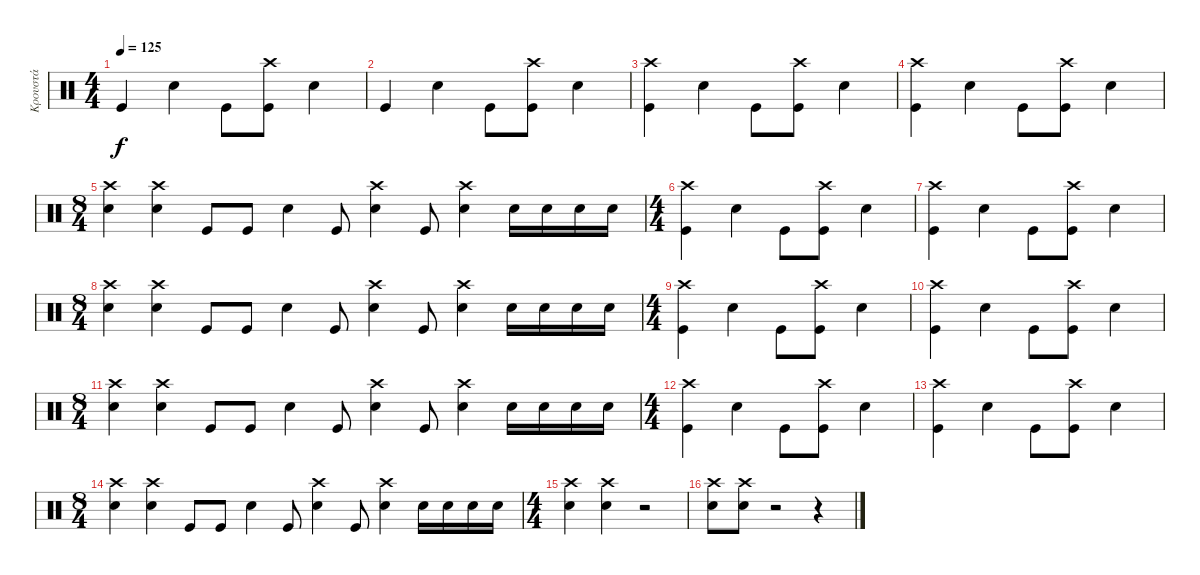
\track ("Κρουστά" "Κρουστά") {instrument percussion}
\staff {score}
\articulation defaults
\ts (4 4)
\tempo 125
\clef neutral
\ks c "Kick (hit)".4{dy f} "Electric Snare (hit)".4 "Kick (hit)".8
("Crash high (hit)" "Kick (hit)").8 "Electric Snare (hit)".4 |
"Kick (hit)".4 "Electric Snare (hit)".4 "Kick (hit)".8 ("Crash high (hit)" "Kick (hit)").8 "Electric Snare (hit)".4 |
("Crash high (hit)" "Kick (hit)").4 "Electric Snare (hit)".4 "Kick (hit)".8 ("Crash high (hit)" "Kick (hit)").8 "Electric Snare (hit)".4 |
("Crash high (hit)" "Kick (hit)").4 "Electric Snare (hit)".4 "Kick (hit)".8 ("Crash high (hit)" "Kick (hit)").8 "Electric Snare (hit)".4 |
\ts (8 4)
("Electric Snare (hit)" "Crash high (hit)").4 ("Crash high (hit)" "Electric Snare (hit)").4 "Kick (hit)".8 "Kick (hit)".8 "Electric Snare (hit)".4 "Kick (hit)".8 ("Crash high (hit)" "Electric Snare (hit)").4 "Kick (hit)".8 ("Crash high (hit)" "Electric Snare (hit)").4 "Electric Snare (hit)".16 "Electric Snare (hit)".16 "Electric Snare (hit)".16 "Electric Snare (hit)".16 |
\ts (4 4)
("Crash high (hit)" "Kick (hit)").4 "Electric Snare (hit)".4 "Kick (hit)".8 ("Crash high (hit)" "Kick (hit)").8 "Electric Snare (hit)".4 |
("Crash high (hit)" "Kick (hit)").4 "Electric Snare (hit)".4 "Kick (hit)".8 ("Crash high (hit)" "Kick (hit)").8 "Electric Snare (hit)".4 |
\ts (8 4)
("Electric Snare (hit)" "Crash high (hit)").4 ("Crash high (hit)" "Electric Snare (hit)").4 "Kick (hit)".8 "Kick (hit)".8 "Electric Snare (hit)".4 "Kick (hit)".8 ("Crash high (hit)" "Electric Snare (hit)").4 "Kick (hit)".8 ("Crash high (hit)" "Electric Snare (hit)").4 "Electric Snare (hit)".16 "Electric Snare (hit)".16 "Electric Snare (hit)".16 "Electric Snare (hit)".16 |
\ts (4 4)
("Crash high (hit)" "Kick (hit)").4 "Electric Snare (hit)".4 "Kick (hit)".8 ("Crash high (hit)" "Kick (hit)").8 "Electric Snare (hit)".4 |
("Crash high (hit)" "Kick (hit)").4 "Electric Snare (hit)".4 "Kick (hit)".8 ("Crash high (hit)" "Kick (hit)").8 "Electric Snare (hit)".4 |
\ts (8 4)
("Electric Snare (hit)" "Crash high (hit)").4 ("Crash high (hit)" "Electric Snare (hit)").4 "Kick (hit)".8 "Kick (hit)".8 "Electric Snare (hit)".4 "Kick (hit)".8 ("Crash high (hit)" "Electric Snare (hit)").4 "Kick (hit)".8 ("Crash high (hit)" "Electric Snare (hit)").4 "Electric Snare (hit)".16 "Electric Snare (hit)".16 "Electric Snare (hit)".16 "Electric Snare (hit)".16 |
\ts (4 4)
("Crash high (hit)" "Kick (hit)").4 "Electric Snare (hit)".4 "Kick (hit)".8 ("Crash high (hit)" "Kick (hit)").8 "Electric Snare (hit)".4 |
("Crash high (hit)" "Kick (hit)").4 "Electric Snare (hit)".4 "Kick (hit)".8 ("Crash high (hit)" "Kick (hit)").8 "Electric Snare (hit)".4 |
\ts (8 4)
("Electric Snare (hit)" "Crash high (hit)").4 ("Crash high (hit)" "Electric Snare (hit)").4 "Kick (hit)".8 "Kick (hit)".8 "Electric Snare (hit)".4 "Kick (hit)".8 ("Crash high (hit)" "Electric Snare (hit)").4 "Kick (hit)".8 ("Crash high (hit)" "Electric Snare (hit)").4 "Electric Snare (hit)".16 "Electric Snare (hit)".16 "Electric Snare (hit)".16 "Electric Snare (hit)".16 |
\ts (4 4)
("Electric Snare (hit)" "Crash high (hit)").4 ("Electric Snare (hit)" "Crash high (hit)").4 r.2 |
("Electric Snare (hit)" "Crash high (hit)").8 ("Crash high (hit)" "Electric Snare (hit)").8 r.2 r.4
